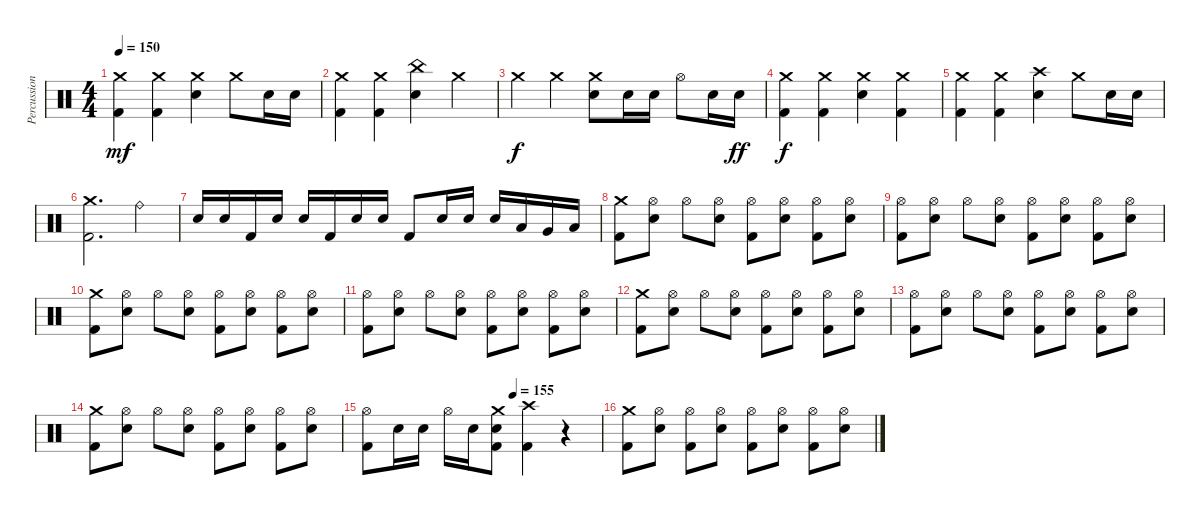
\track ("Percussion" "Percussion") {instrument percussion}
\staff {score}
\articulation defaults
\ts (4 4)
\tempo 150
\clef neutral
\ks c
("Crash medium (hit)" "Kick (hit) 2").4{dy mf} ("Crash medium (hit)" "Kick (hit) 2").4 ("Crash medium (hit)" "Electric Snare (hit)").4 "Crash medium (hit)".8 "Electric Snare (hit)".16 "Electric Snare (hit)".16 |
("Crash medium (hit)" "Kick (hit) 2").4 ("Crash medium (hit)" "Kick (hit) 2").4 ("China (hit)" "Electric Snare (hit)").4 "Crash medium (hit)".4 |
"Crash medium (hit)".4{dy f} "Crash medium (hit)".4 ("Crash medium (hit)" "Electric Snare (hit)").8 "Electric Snare (hit)".16 "Electric Snare (hit)".16 "Hi-Hat (open)".8 "Electric Snare (hit)".16 "Electric Snare (hit)".16{dy ff} |
("Crash medium (hit)" "Kick (hit) 2").4{dy f} ("Crash medium (hit)" "Kick (hit) 2").4 ("Crash medium (hit)" "Electric Snare (hit)").4 ("Crash medium (hit)" "Kick (hit) 2").4 |
("Crash medium (hit)" "Kick (hit) 2").4 ("Crash medium (hit)" "Kick (hit) 2").4 ("Crash high (hit)" "Electric Snare (hit)").4 "Crash medium (hit)".8 "Electric Snare (hit)".16 "Electric Snare (hit)".16 |
("Crash medium (hit)" "Kick (hit) 2").2{d} "Ride (bell)".4 |
"Electric Snare (hit)".16 "Electric Snare (hit)".16 "Kick (hit) 2".16 "Electric Snare (hit)".16 "Electric Snare (hit)".16 "Kick (hit) 2".16 "Electric Snare (hit)".16 "Electric Snare (hit)".16 "Kick (hit) 2".8 "Electric Snare (hit)".16 "Electric Snare (hit)".16 "Electric Snare (hit)".16 "Low Tom (hit)".16 "Very Low Tom (hit)".16 "Low Floor Tom (hit)".16 |
("Crash medium (hit)" "Kick (hit) 2").8 ("Hi-Hat (open)" "Electric Snare (hit)").8 "Hi-Hat (open)".8 ("Hi-Hat (open)" "Electric Snare (hit)").8 ("Hi-Hat (open)" "Kick (hit) 2").8 ("Hi-Hat (open)" "Electric Snare (hit)").8 ("Hi-Hat (open)" "Kick (hit) 2").8 ("Hi-Hat (open)" "Electric Snare (hit)").8 |
("Hi-Hat (open)" "Kick (hit) 2").8 ("Hi-Hat (open)" "Electric Snare (hit)").8 "Hi-Hat (open)".8 ("Hi-Hat (open)" "Electric Snare (hit)").8 ("Hi-Hat (open)" "Kick (hit) 2").8 ("Hi-Hat (open)" "Electric Snare (hit)").8 ("Hi-Hat (open)" "Kick (hit) 2").8 ("Hi-Hat (open)" "Electric Snare (hit)").8 |
("Crash medium (hit)" "Kick (hit) 2").8 ("Hi-Hat (open)" "Electric Snare (hit)").8 "Hi-Hat (open)".8 ("Hi-Hat (open)" "Electric Snare (hit)").8 ("Hi-Hat (open)" "Kick (hit) 2").8 ("Hi-Hat (open)" "Electric Snare (hit)").8 ("Hi-Hat (open)" "Kick (hit) 2").8 ("Hi-Hat (open)" "Electric Snare (hit)").8 |
("Hi-Hat (open)" "Kick (hit) 2").8 ("Hi-Hat (open)" "Electric Snare (hit)").8 "Hi-Hat (open)".8 ("Hi-Hat (open)" "Electric Snare (hit)").8 ("Hi-Hat (open)" "Kick (hit) 2").8 ("Hi-Hat (open)" "Electric Snare (hit)").8 ("Hi-Hat (open)" "Kick (hit) 2").8 ("Hi-Hat (open)" "Electric Snare (hit)").8 |
("Crash medium (hit)" "Kick (hit) 2").8 ("Hi-Hat (open)" "Electric Snare (hit)").8 "Hi-Hat (open)".8 ("Hi-Hat (open)" "Electric Snare (hit)").8 ("Hi-Hat (open)" "Kick (hit) 2").8 ("Hi-Hat (open)" "Electric Snare (hit)").8 ("Hi-Hat (open)" "Kick (hit) 2").8 ("Hi-Hat (open)" "Electric Snare (hit)").8 |
("Hi-Hat (open)" "Kick (hit) 2").8 ("Hi-Hat (open)" "Electric Snare (hit)").8 "Hi-Hat (open)".8 ("Hi-Hat (open)" "Electric Snare (hit)").8 ("Hi-Hat (open)" "Kick (hit) 2").8 ("Hi-Hat (open)" "Electric Snare (hit)").8 ("Hi-Hat (open)" "Kick (hit) 2").8 ("Hi-Hat (open)" "Electric Snare (hit)").8 |
("Crash medium (hit)" "Kick (hit) 2").8 ("Hi-Hat (open)" "Electric Snare (hit)").8 "Hi-Hat (open)".8 ("Hi-Hat (open)" "Electric Snare (hit)").8 ("Hi-Hat (open)" "Kick (hit) 2").8 ("Hi-Hat (open)" "Electric Snare (hit)").8 ("Hi-Hat (open)" "Kick (hit) 2").8 ("Hi-Hat (open)" "Electric Snare (hit)").8 |
\tempo (155 0.625)
("Hi-Hat (open)" "Kick (hit) 2").8 "Electric Snare (hit)".16 "Electric Snare (hit)".16 "Hi-Hat (open)".16 "Electric Snare (hit)".16 ("Crash medium (hit)" "Electric Snare (hit)" "Kick (hit) 2").8 ("Crash high (hit)" "Kick (hit) 2").4 r.4{volume 0} |
("Crash medium (hit)" "Kick (hit) 2").8{volume 13} ("Hi-Hat (open)" "Electric Snare (hit)").8 ("Hi-Hat (open)" "Kick (hit) 2").8 ("Hi-Hat (open)" "Electric Snare (hit)").8 ("Hi-Hat (open)" "Kick (hit) 2").8 ("Hi-Hat (open)" "Electric Snare (hit)").8 ("Hi-Hat (open)" "Kick (hit) 2").8 ("Hi-Hat (open)" "Electric Snare (hit)").8
